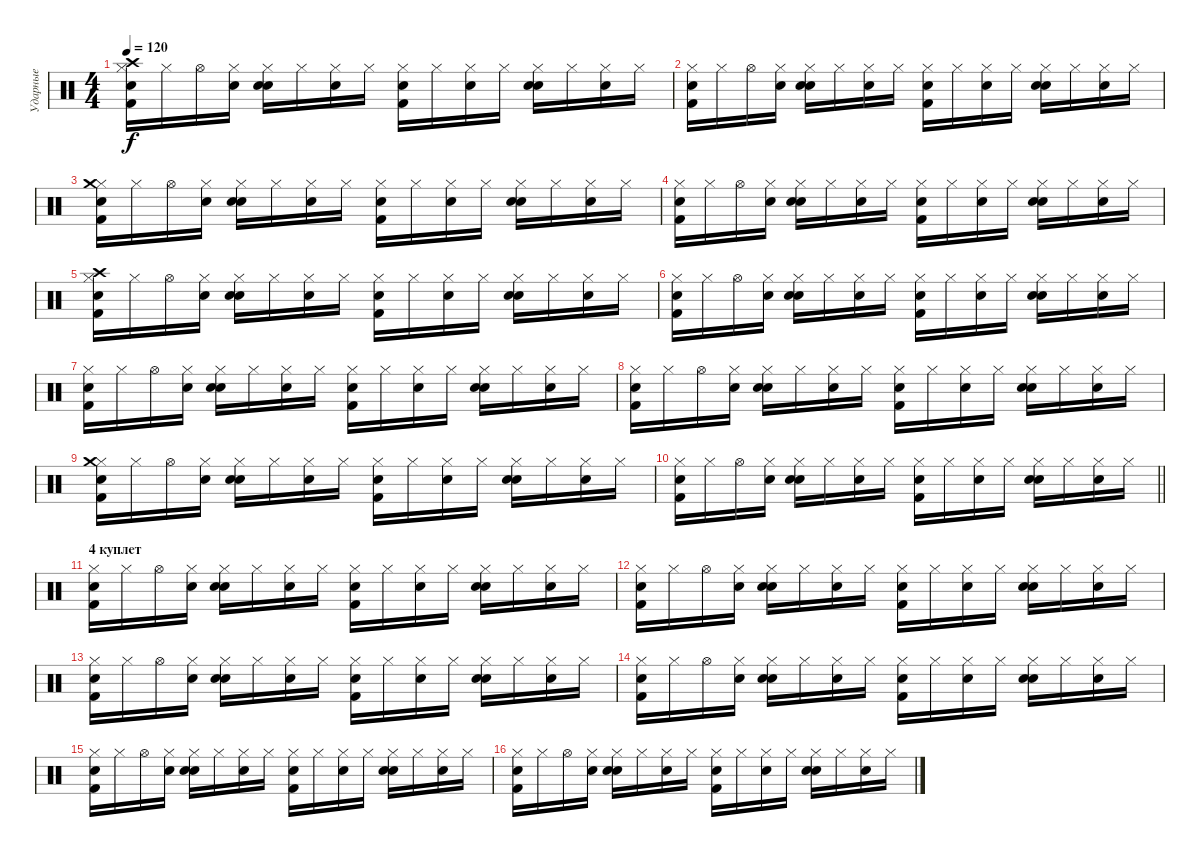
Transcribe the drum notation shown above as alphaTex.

\track ("Ударные" "Ударные") {instrument percussion}
\staff {score}
\articulation defaults
\ts (4 4)
\tempo 120
\clef neutral
\ks c
("Hi-Hat (closed)" "Snare (hit) 2" "Kick (hit) 2" "Crash high (hit)").16{dy f} "Hi-Hat (closed)".16 "Hi-Hat (open)".16 ("Hi-Hat (closed)" "Snare (hit) 2").16 ("Hi-Hat (closed)" "Snare (hit) 2" "Electric Snare (hit)").16 "Hi-Hat (closed)".16 ("Hi-Hat (closed)" "Snare (hit) 2").16 "Hi-Hat (closed)".16 ("Hi-Hat (closed)" "Snare (hit) 2" "Kick (hit) 2").16 "Hi-Hat (closed)".16 ("Hi-Hat (closed)" "Snare (hit) 2").16 "Hi-Hat (closed)".16 ("Hi-Hat (closed)" "Snare (hit) 2" "Electric Snare (hit)").16 "Hi-Hat (closed)".16 ("Hi-Hat (closed)" "Snare (hit) 2").16 "Hi-Hat (closed)".16 |
("Hi-Hat (closed)" "Snare (hit) 2" "Kick (hit) 2").16 "Hi-Hat (closed)".16 "Hi-Hat (open)".16 ("Hi-Hat (closed)" "Snare (hit) 2").16 ("Hi-Hat (closed)" "Snare (hit) 2" "Electric Snare (hit)").16 "Hi-Hat (closed)".16 ("Hi-Hat (closed)" "Snare (hit) 2").16 "Hi-Hat (closed)".16 ("Hi-Hat (closed)" "Snare (hit) 2" "Kick (hit) 2").16 "Hi-Hat (closed)".16 ("Hi-Hat (closed)" "Snare (hit) 2").16 "Hi-Hat (closed)".16 ("Hi-Hat (closed)" "Snare (hit) 2" "Electric Snare (hit)").16 "Hi-Hat (closed)".16 ("Hi-Hat (closed)" "Snare (hit) 2").16 "Hi-Hat (closed)".16 |
("Hi-Hat (closed)" "Snare (hit) 2" "Kick (hit) 2" "Crash medium (hit)").16 "Hi-Hat (closed)".16 "Hi-Hat (open)".16 ("Hi-Hat (closed)" "Snare (hit) 2").16 ("Hi-Hat (closed)" "Snare (hit) 2" "Electric Snare (hit)").16 "Hi-Hat (closed)".16 ("Hi-Hat (closed)" "Snare (hit) 2").16 "Hi-Hat (closed)".16 ("Hi-Hat (closed)" "Snare (hit) 2" "Kick (hit) 2").16 "Hi-Hat (closed)".16 ("Hi-Hat (closed)" "Snare (hit) 2").16 "Hi-Hat (closed)".16 ("Hi-Hat (closed)" "Snare (hit) 2" "Electric Snare (hit)").16 "Hi-Hat (closed)".16 ("Hi-Hat (closed)" "Snare (hit) 2").16 "Hi-Hat (closed)".16 |
("Hi-Hat (closed)" "Snare (hit) 2" "Kick (hit) 2").16 "Hi-Hat (closed)".16 "Hi-Hat (open)".16 ("Hi-Hat (closed)" "Snare (hit) 2").16 ("Hi-Hat (closed)" "Snare (hit) 2" "Electric Snare (hit)").16 "Hi-Hat (closed)".16 ("Hi-Hat (closed)" "Snare (hit) 2").16 "Hi-Hat (closed)".16 ("Hi-Hat (closed)" "Snare (hit) 2" "Kick (hit) 2").16 "Hi-Hat (closed)".16 ("Hi-Hat (closed)" "Snare (hit) 2").16 "Hi-Hat (closed)".16 ("Hi-Hat (closed)" "Snare (hit) 2" "Electric Snare (hit)").16 "Hi-Hat (closed)".16 ("Hi-Hat (closed)" "Snare (hit) 2").16 "Hi-Hat (closed)".16 |
("Hi-Hat (closed)" "Snare (hit) 2" "Kick (hit) 2" "Crash high (hit)").16 "Hi-Hat (closed)".16 "Hi-Hat (open)".16 ("Hi-Hat (closed)" "Snare (hit) 2").16 ("Hi-Hat (closed)" "Snare (hit) 2" "Electric Snare (hit)").16 "Hi-Hat (closed)".16 ("Hi-Hat (closed)" "Snare (hit) 2").16 "Hi-Hat (closed)".16 ("Hi-Hat (closed)" "Snare (hit) 2" "Kick (hit) 2").16 "Hi-Hat (closed)".16 ("Hi-Hat (closed)" "Snare (hit) 2").16 "Hi-Hat (closed)".16 ("Hi-Hat (closed)" "Snare (hit) 2" "Electric Snare (hit)").16 "Hi-Hat (closed)".16 ("Hi-Hat (closed)" "Snare (hit) 2").16 "Hi-Hat (closed)".16 |
("Hi-Hat (closed)" "Snare (hit) 2" "Kick (hit) 2").16 "Hi-Hat (closed)".16 "Hi-Hat (open)".16 ("Hi-Hat (closed)" "Snare (hit) 2").16 ("Hi-Hat (closed)" "Snare (hit) 2" "Electric Snare (hit)").16 "Hi-Hat (closed)".16 ("Hi-Hat (closed)" "Snare (hit) 2").16 "Hi-Hat (closed)".16 ("Hi-Hat (closed)" "Snare (hit) 2" "Kick (hit) 2").16 "Hi-Hat (closed)".16 ("Hi-Hat (closed)" "Snare (hit) 2").16 "Hi-Hat (closed)".16 ("Hi-Hat (closed)" "Snare (hit) 2" "Electric Snare (hit)").16 "Hi-Hat (closed)".16 ("Hi-Hat (closed)" "Snare (hit) 2").16 "Hi-Hat (closed)".16 |
("Hi-Hat (closed)" "Snare (hit) 2" "Kick (hit) 2").16 "Hi-Hat (closed)".16 "Hi-Hat (open)".16 ("Hi-Hat (closed)" "Snare (hit) 2").16 ("Hi-Hat (closed)" "Snare (hit) 2" "Electric Snare (hit)").16 "Hi-Hat (closed)".16 ("Hi-Hat (closed)" "Snare (hit) 2").16 "Hi-Hat (closed)".16 ("Hi-Hat (closed)" "Snare (hit) 2" "Kick (hit) 2").16 "Hi-Hat (closed)".16 ("Hi-Hat (closed)" "Snare (hit) 2").16 "Hi-Hat (closed)".16 ("Hi-Hat (closed)" "Snare (hit) 2" "Electric Snare (hit)").16 "Hi-Hat (closed)".16 ("Hi-Hat (closed)" "Snare (hit) 2").16 "Hi-Hat (closed)".16 |
("Hi-Hat (closed)" "Snare (hit) 2" "Kick (hit) 2").16 "Hi-Hat (closed)".16 "Hi-Hat (open)".16 ("Hi-Hat (closed)" "Snare (hit) 2").16 ("Hi-Hat (closed)" "Snare (hit) 2" "Electric Snare (hit)").16 "Hi-Hat (closed)".16 ("Hi-Hat (closed)" "Snare (hit) 2").16 "Hi-Hat (closed)".16 ("Hi-Hat (closed)" "Snare (hit) 2" "Kick (hit) 2").16 "Hi-Hat (closed)".16 ("Hi-Hat (closed)" "Snare (hit) 2").16 "Hi-Hat (closed)".16 ("Hi-Hat (closed)" "Snare (hit) 2" "Electric Snare (hit)").16 "Hi-Hat (closed)".16 ("Hi-Hat (closed)" "Snare (hit) 2").16 "Hi-Hat (closed)".16 |
("Hi-Hat (closed)" "Snare (hit) 2" "Kick (hit) 2" "Crash medium (hit)").16 "Hi-Hat (closed)".16 "Hi-Hat (open)".16 ("Hi-Hat (closed)" "Snare (hit) 2").16 ("Hi-Hat (closed)" "Snare (hit) 2" "Electric Snare (hit)").16 "Hi-Hat (closed)".16 ("Hi-Hat (closed)" "Snare (hit) 2").16 "Hi-Hat (closed)".16 ("Hi-Hat (closed)" "Snare (hit) 2" "Kick (hit) 2").16 "Hi-Hat (closed)".16 ("Hi-Hat (closed)" "Snare (hit) 2").16 "Hi-Hat (closed)".16 ("Hi-Hat (closed)" "Snare (hit) 2" "Electric Snare (hit)").16 "Hi-Hat (closed)".16 ("Hi-Hat (closed)" "Snare (hit) 2").16 "Hi-Hat (closed)".16 |
\barLineRight lightlight
("Hi-Hat (closed)" "Snare (hit) 2" "Kick (hit) 2").16 "Hi-Hat (closed)".16 "Hi-Hat (open)".16 ("Hi-Hat (closed)" "Snare (hit) 2").16 ("Hi-Hat (closed)" "Snare (hit) 2" "Electric Snare (hit)").16 "Hi-Hat (closed)".16 ("Hi-Hat (closed)" "Snare (hit) 2").16 "Hi-Hat (closed)".16 ("Hi-Hat (closed)" "Snare (hit) 2" "Kick (hit) 2").16 "Hi-Hat (closed)".16 ("Hi-Hat (closed)" "Snare (hit) 2").16 "Hi-Hat (closed)".16 ("Hi-Hat (closed)" "Snare (hit) 2" "Electric Snare (hit)").16 "Hi-Hat (closed)".16 ("Hi-Hat (closed)" "Snare (hit) 2").16 "Hi-Hat (closed)".16 |
\section ("" "4 куплет")
("Hi-Hat (closed)" "Snare (hit) 2" "Kick (hit) 2").16 "Hi-Hat (closed)".16 "Hi-Hat (open)".16 ("Hi-Hat (closed)" "Snare (hit) 2").16 ("Hi-Hat (closed)" "Snare (hit) 2" "Electric Snare (hit)").16 "Hi-Hat (closed)".16 ("Hi-Hat (closed)" "Snare (hit) 2").16 "Hi-Hat (closed)".16 ("Hi-Hat (closed)" "Snare (hit) 2" "Kick (hit) 2").16 "Hi-Hat (closed)".16 ("Hi-Hat (closed)" "Snare (hit) 2").16 "Hi-Hat (closed)".16 ("Hi-Hat (closed)" "Snare (hit) 2" "Electric Snare (hit)").16 "Hi-Hat (closed)".16 ("Hi-Hat (closed)" "Snare (hit) 2").16 "Hi-Hat (closed)".16 |
("Hi-Hat (closed)" "Snare (hit) 2" "Kick (hit) 2").16 "Hi-Hat (closed)".16 "Hi-Hat (open)".16 ("Hi-Hat (closed)" "Snare (hit) 2").16 ("Hi-Hat (closed)" "Snare (hit) 2" "Electric Snare (hit)").16 "Hi-Hat (closed)".16 ("Hi-Hat (closed)" "Snare (hit) 2").16 "Hi-Hat (closed)".16 ("Hi-Hat (closed)" "Snare (hit) 2" "Kick (hit) 2").16 "Hi-Hat (closed)".16 ("Hi-Hat (closed)" "Snare (hit) 2").16 "Hi-Hat (closed)".16 ("Hi-Hat (closed)" "Snare (hit) 2" "Electric Snare (hit)").16 "Hi-Hat (closed)".16 ("Hi-Hat (closed)" "Snare (hit) 2").16 "Hi-Hat (closed)".16 |
("Hi-Hat (closed)" "Snare (hit) 2" "Kick (hit) 2").16 "Hi-Hat (closed)".16 "Hi-Hat (open)".16 ("Hi-Hat (closed)" "Snare (hit) 2").16 ("Hi-Hat (closed)" "Snare (hit) 2" "Electric Snare (hit)").16 "Hi-Hat (closed)".16 ("Hi-Hat (closed)" "Snare (hit) 2").16 "Hi-Hat (closed)".16 ("Hi-Hat (closed)" "Snare (hit) 2" "Kick (hit) 2").16 "Hi-Hat (closed)".16 ("Hi-Hat (closed)" "Snare (hit) 2").16 "Hi-Hat (closed)".16 ("Hi-Hat (closed)" "Snare (hit) 2" "Electric Snare (hit)").16 "Hi-Hat (closed)".16 ("Hi-Hat (closed)" "Snare (hit) 2").16 "Hi-Hat (closed)".16 |
("Hi-Hat (closed)" "Snare (hit) 2" "Kick (hit) 2").16 "Hi-Hat (closed)".16 "Hi-Hat (open)".16 ("Hi-Hat (closed)" "Snare (hit) 2").16 ("Hi-Hat (closed)" "Snare (hit) 2" "Electric Snare (hit)").16 "Hi-Hat (closed)".16 ("Hi-Hat (closed)" "Snare (hit) 2").16 "Hi-Hat (closed)".16 ("Hi-Hat (closed)" "Snare (hit) 2" "Kick (hit) 2").16 "Hi-Hat (closed)".16 ("Hi-Hat (closed)" "Snare (hit) 2").16 "Hi-Hat (closed)".16 ("Hi-Hat (closed)" "Snare (hit) 2" "Electric Snare (hit)").16 "Hi-Hat (closed)".16 ("Hi-Hat (closed)" "Snare (hit) 2").16 "Hi-Hat (closed)".16 |
("Hi-Hat (closed)" "Snare (hit) 2" "Kick (hit) 2").16 "Hi-Hat (closed)".16 "Hi-Hat (open)".16 ("Hi-Hat (closed)" "Snare (hit) 2").16 ("Hi-Hat (closed)" "Snare (hit) 2" "Electric Snare (hit)").16 "Hi-Hat (closed)".16 ("Hi-Hat (closed)" "Snare (hit) 2").16 "Hi-Hat (closed)".16 ("Hi-Hat (closed)" "Snare (hit) 2" "Kick (hit) 2").16 "Hi-Hat (closed)".16 ("Hi-Hat (closed)" "Snare (hit) 2").16 "Hi-Hat (closed)".16 ("Hi-Hat (closed)" "Snare (hit) 2" "Electric Snare (hit)").16 "Hi-Hat (closed)".16 ("Hi-Hat (closed)" "Snare (hit) 2").16 "Hi-Hat (closed)".16 |
("Hi-Hat (closed)" "Snare (hit) 2" "Kick (hit) 2").16 "Hi-Hat (closed)".16 "Hi-Hat (open)".16 ("Hi-Hat (closed)" "Snare (hit) 2").16 ("Hi-Hat (closed)" "Snare (hit) 2" "Electric Snare (hit)").16 "Hi-Hat (closed)".16 ("Hi-Hat (closed)" "Snare (hit) 2").16 "Hi-Hat (closed)".16 ("Hi-Hat (closed)" "Snare (hit) 2" "Kick (hit) 2").16 "Hi-Hat (closed)".16 ("Hi-Hat (closed)" "Snare (hit) 2").16 "Hi-Hat (closed)".16 ("Hi-Hat (closed)" "Snare (hit) 2" "Electric Snare (hit)").16 "Hi-Hat (closed)".16 ("Hi-Hat (closed)" "Snare (hit) 2").16 "Hi-Hat (closed)".16
